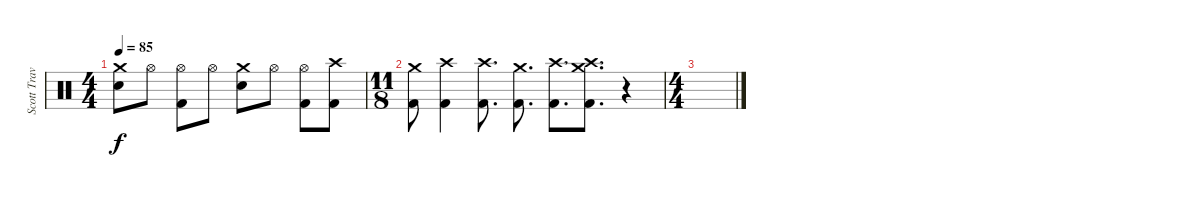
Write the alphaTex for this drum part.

\track ("Scott Travis" "Scott Trav") {instrument percussion}
\staff {score}
\articulation defaults
\ts (4 4)
\tempo 85
\clef neutral
\ks c
("Crash medium (hit)" "Snare (hit) 2").8{dy f} "Hi-Hat (open)".8 ("Hi-Hat (open)" "Kick (hit) 2").8 "Hi-Hat (open)".8 ("Crash medium (hit)" "Snare (hit) 2").8 "Hi-Hat (open)".8 ("Hi-Hat (open)" "Kick (hit) 2").8 ("Crash high (hit)" "Kick (hit) 2").8 |
\ts (11 8)
("Crash medium (hit)" "Kick (hit) 2").8 ("Crash high (hit)" "Kick (hit) 2").4 ("Crash high (hit)" "Kick (hit) 2").8{d} ("Crash medium (hit)" "Kick (hit) 2").8{d} ("Crash high (hit)" "Kick (hit) 2").8{d} ("Crash medium (hit)" "Crash high (hit)" "Kick (hit) 2").8{d} r.4 |
\ts (4 4)
